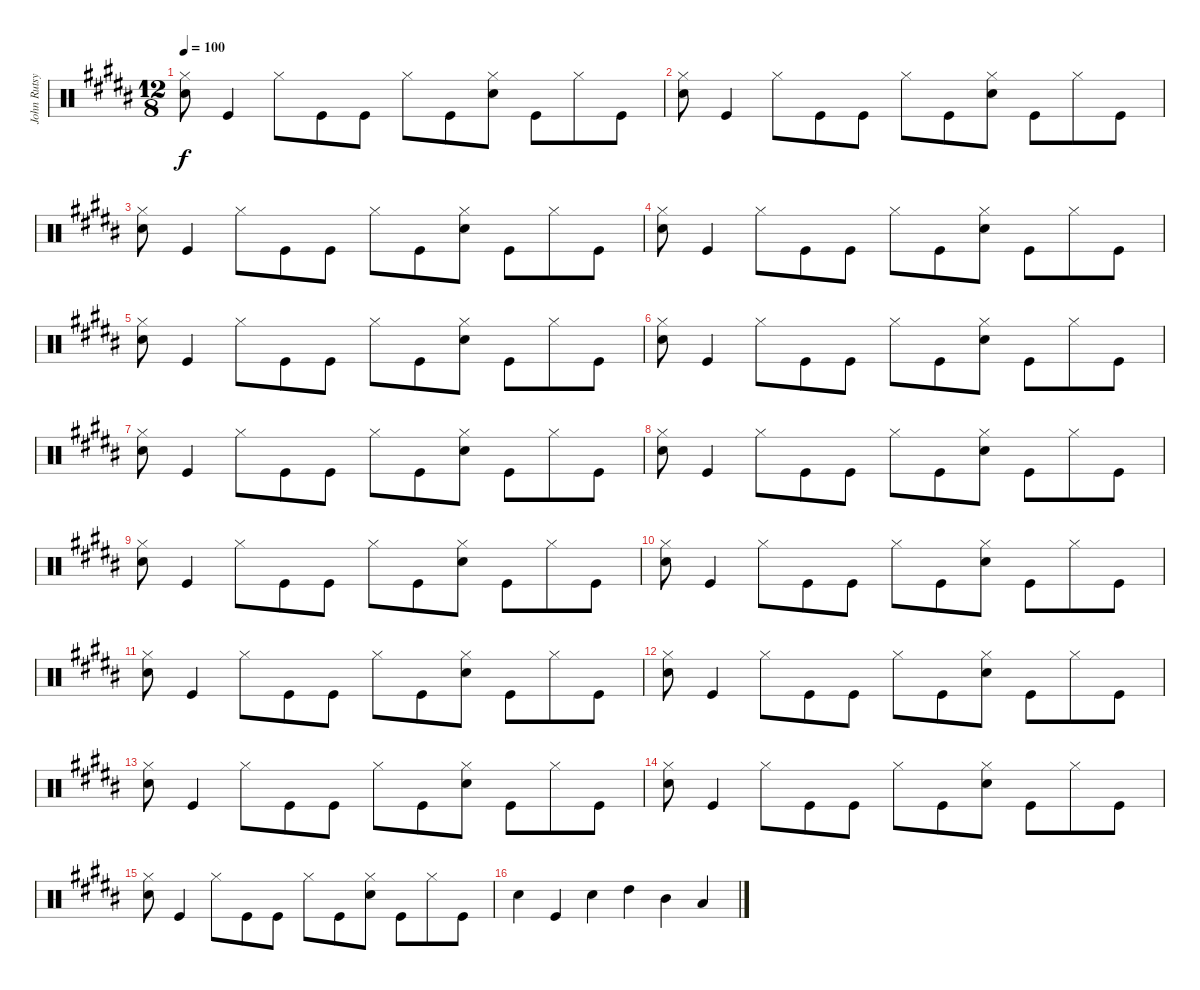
\track ("John Rutsy Drums" "John Rutsy") {instrument percussion}
\staff {score}
\articulation defaults
\ts (12 8)
\tempo 100
\clef neutral
\ks b
("Hi-Hat (closed)" "Snare (hit) 2").8{dy f} "Kick (hit)".4 "Hi-Hat (closed)".8 "Kick (hit)".8 "Kick (hit)".8 "Hi-Hat (closed)".8 "Kick (hit)".8 ("Hi-Hat (closed)" "Snare (hit) 2").8 "Kick (hit)".8 "Hi-Hat (closed)".8 "Kick (hit)".8 |
("Hi-Hat (closed)" "Snare (hit) 2").8 "Kick (hit)".4 "Hi-Hat (closed)".8 "Kick (hit)".8 "Kick (hit)".8 "Hi-Hat (closed)".8 "Kick (hit)".8 ("Hi-Hat (closed)" "Snare (hit) 2").8 "Kick (hit)".8 "Hi-Hat (closed)".8 "Kick (hit)".8 |
("Hi-Hat (closed)" "Snare (hit) 2").8 "Kick (hit)".4 "Hi-Hat (closed)".8 "Kick (hit)".8 "Kick (hit)".8 "Hi-Hat (closed)".8 "Kick (hit)".8 ("Hi-Hat (closed)" "Snare (hit) 2").8 "Kick (hit)".8 "Hi-Hat (closed)".8 "Kick (hit)".8 |
("Hi-Hat (closed)" "Snare (hit) 2").8 "Kick (hit)".4 "Hi-Hat (closed)".8 "Kick (hit)".8 "Kick (hit)".8 "Hi-Hat (closed)".8 "Kick (hit)".8 ("Hi-Hat (closed)" "Snare (hit) 2").8 "Kick (hit)".8 "Hi-Hat (closed)".8 "Kick (hit)".8 |
("Hi-Hat (closed)" "Snare (hit) 2").8 "Kick (hit)".4 "Hi-Hat (closed)".8 "Kick (hit)".8 "Kick (hit)".8 "Hi-Hat (closed)".8 "Kick (hit)".8 ("Hi-Hat (closed)" "Snare (hit) 2").8 "Kick (hit)".8 "Hi-Hat (closed)".8 "Kick (hit)".8 |
("Hi-Hat (closed)" "Snare (hit) 2").8 "Kick (hit)".4 "Hi-Hat (closed)".8 "Kick (hit)".8 "Kick (hit)".8 "Hi-Hat (closed)".8 "Kick (hit)".8 ("Hi-Hat (closed)" "Snare (hit) 2").8 "Kick (hit)".8 "Hi-Hat (closed)".8 "Kick (hit)".8 |
("Hi-Hat (closed)" "Snare (hit) 2").8 "Kick (hit)".4 "Hi-Hat (closed)".8 "Kick (hit)".8 "Kick (hit)".8 "Hi-Hat (closed)".8 "Kick (hit)".8 ("Hi-Hat (closed)" "Snare (hit) 2").8 "Kick (hit)".8 "Hi-Hat (closed)".8 "Kick (hit)".8 |
("Hi-Hat (closed)" "Snare (hit) 2").8 "Kick (hit)".4 "Hi-Hat (closed)".8 "Kick (hit)".8 "Kick (hit)".8 "Hi-Hat (closed)".8 "Kick (hit)".8 ("Hi-Hat (closed)" "Snare (hit) 2").8 "Kick (hit)".8 "Hi-Hat (closed)".8 "Kick (hit)".8 |
("Hi-Hat (closed)" "Snare (hit) 2").8 "Kick (hit)".4 "Hi-Hat (closed)".8 "Kick (hit)".8 "Kick (hit)".8 "Hi-Hat (closed)".8 "Kick (hit)".8 ("Hi-Hat (closed)" "Snare (hit) 2").8 "Kick (hit)".8 "Hi-Hat (closed)".8 "Kick (hit)".8 |
("Hi-Hat (closed)" "Snare (hit) 2").8 "Kick (hit)".4 "Hi-Hat (closed)".8 "Kick (hit)".8 "Kick (hit)".8 "Hi-Hat (closed)".8 "Kick (hit)".8 ("Hi-Hat (closed)" "Snare (hit) 2").8 "Kick (hit)".8 "Hi-Hat (closed)".8 "Kick (hit)".8 |
("Hi-Hat (closed)" "Snare (hit) 2").8 "Kick (hit)".4 "Hi-Hat (closed)".8 "Kick (hit)".8 "Kick (hit)".8 "Hi-Hat (closed)".8 "Kick (hit)".8 ("Hi-Hat (closed)" "Snare (hit) 2").8 "Kick (hit)".8 "Hi-Hat (closed)".8 "Kick (hit)".8 |
("Hi-Hat (closed)" "Snare (hit) 2").8 "Kick (hit)".4 "Hi-Hat (closed)".8 "Kick (hit)".8 "Kick (hit)".8 "Hi-Hat (closed)".8 "Kick (hit)".8 ("Hi-Hat (closed)" "Snare (hit) 2").8 "Kick (hit)".8 "Hi-Hat (closed)".8 "Kick (hit)".8 |
("Hi-Hat (closed)" "Snare (hit) 2").8 "Kick (hit)".4 "Hi-Hat (closed)".8 "Kick (hit)".8 "Kick (hit)".8 "Hi-Hat (closed)".8 "Kick (hit)".8 ("Hi-Hat (closed)" "Snare (hit) 2").8 "Kick (hit)".8 "Hi-Hat (closed)".8 "Kick (hit)".8 |
("Hi-Hat (closed)" "Snare (hit) 2").8 "Kick (hit)".4 "Hi-Hat (closed)".8 "Kick (hit)".8 "Kick (hit)".8 "Hi-Hat (closed)".8 "Kick (hit)".8 ("Hi-Hat (closed)" "Snare (hit) 2").8 "Kick (hit)".8 "Hi-Hat (closed)".8 "Kick (hit)".8 |
("Hi-Hat (closed)" "Snare (hit) 2").8 "Kick (hit)".4 "Hi-Hat (closed)".8 "Kick (hit)".8 "Kick (hit)".8 "Hi-Hat (closed)".8 "Kick (hit)".8 ("Hi-Hat (closed)" "Snare (hit) 2").8 "Kick (hit)".8 "Hi-Hat (closed)".8 "Kick (hit)".8 |
"Snare (hit) 2".4 "Kick (hit)".4 "Snare (hit) 2".4 "High Tom (hit)".4 "Mid Tom (hit)".4 "Low Tom (hit)".4
